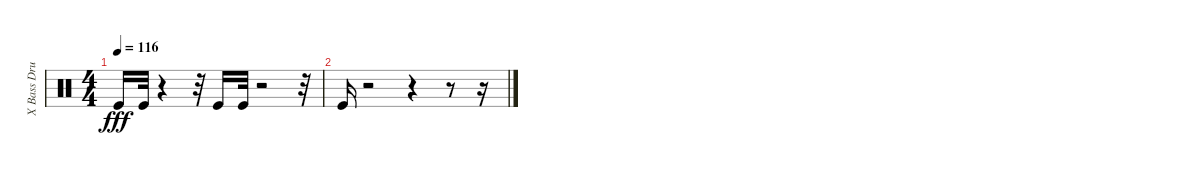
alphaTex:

\track ("X Bass Drum         " "X Bass Dru") {instrument percussion}
\staff {score}
\articulation defaults
\ts (4 4)
\tempo 116
\clef neutral
\ks c "Kick (hit)".16{dy fff} "Kick (hit)".32
r.4 r.32 "Kick (hit)".16 "Kick (hit)".32 r.2 r.32 |
"Kick (hit)".16 r.2 r.4 r.8 r.16
